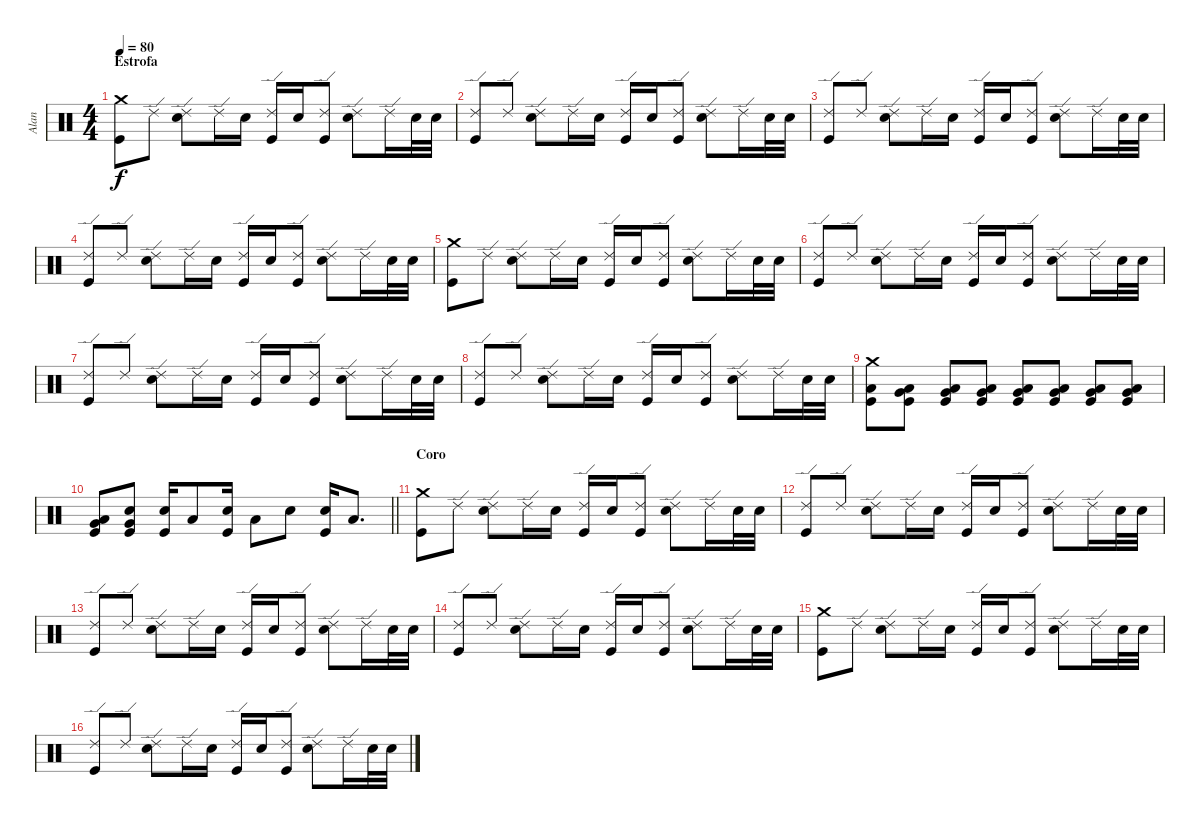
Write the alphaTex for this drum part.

\track ("Alan" "Alan") {instrument percussion}
\staff {score}
\articulation defaults
\ts (4 4)
\section ("" "Estrofa")
\tempo 80
\clef neutral
\ks c
("Crash medium (hit)" "Kick (hit)").8{dy f} "Ride (edge) 2".8 ("Ride (edge) 2" "Snare (hit) 2").8 "Ride (edge) 2".16 "Snare (hit) 2".16 ("Ride (edge) 2" "Kick (hit)").16 "Snare (hit) 2".16 ("Ride (edge) 2" "Kick (hit)").8 ("Ride (edge) 2" "Snare (hit) 2").8 "Ride (edge) 2".16 "Snare (hit) 2".32 "Snare (hit) 2".32 |
("Ride (edge) 2" "Kick (hit)").8 "Ride (edge) 2".8 ("Ride (edge) 2" "Snare (hit) 2").8 "Ride (edge) 2".16 "Snare (hit) 2".16 ("Ride (edge) 2" "Kick (hit)").16 "Snare (hit) 2".16 ("Ride (edge) 2" "Kick (hit)").8 ("Ride (edge) 2" "Snare (hit) 2").8 "Ride (edge) 2".16 "Snare (hit) 2".32 "Snare (hit) 2".32 |
("Ride (edge) 2" "Kick (hit)").8 "Ride (edge) 2".8 ("Ride (edge) 2" "Snare (hit) 2").8 "Ride (edge) 2".16 "Snare (hit) 2".16 ("Ride (edge) 2" "Kick (hit)").16 "Snare (hit) 2".16 ("Ride (edge) 2" "Kick (hit)").8 ("Ride (edge) 2" "Snare (hit) 2").8 "Ride (edge) 2".16 "Snare (hit) 2".32 "Snare (hit) 2".32 |
("Ride (edge) 2" "Kick (hit)").8 "Ride (edge) 2".8 ("Ride (edge) 2" "Snare (hit) 2").8 "Ride (edge) 2".16 "Snare (hit) 2".16 ("Ride (edge) 2" "Kick (hit)").16 "Snare (hit) 2".16 ("Ride (edge) 2" "Kick (hit)").8 ("Ride (edge) 2" "Snare (hit) 2").8 "Ride (edge) 2".16 "Snare (hit) 2".32 "Snare (hit) 2".32 |
("Crash medium (hit)" "Kick (hit)").8 "Ride (edge) 2".8 ("Ride (edge) 2" "Snare (hit) 2").8 "Ride (edge) 2".16 "Snare (hit) 2".16 ("Ride (edge) 2" "Kick (hit)").16 "Snare (hit) 2".16 ("Ride (edge) 2" "Kick (hit)").8 ("Ride (edge) 2" "Snare (hit) 2").8 "Ride (edge) 2".16 "Snare (hit) 2".32 "Snare (hit) 2".32 |
("Ride (edge) 2" "Kick (hit)").8 "Ride (edge) 2".8 ("Ride (edge) 2" "Snare (hit) 2").8 "Ride (edge) 2".16 "Snare (hit) 2".16 ("Ride (edge) 2" "Kick (hit)").16 "Snare (hit) 2".16 ("Ride (edge) 2" "Kick (hit)").8 ("Ride (edge) 2" "Snare (hit) 2").8 "Ride (edge) 2".16 "Snare (hit) 2".32 "Snare (hit) 2".32 |
("Ride (edge) 2" "Kick (hit)").8 "Ride (edge) 2".8 ("Ride (edge) 2" "Snare (hit) 2").8 "Ride (edge) 2".16 "Snare (hit) 2".16 ("Ride (edge) 2" "Kick (hit)").16 "Snare (hit) 2".16 ("Ride (edge) 2" "Kick (hit)").8 ("Ride (edge) 2" "Snare (hit) 2").8 "Ride (edge) 2".16 "Snare (hit) 2".32 "Snare (hit) 2".32 |
("Ride (edge) 2" "Kick (hit)").8 "Ride (edge) 2".8 ("Ride (edge) 2" "Snare (hit) 2").8 "Ride (edge) 2".16 "Snare (hit) 2".16 ("Ride (edge) 2" "Kick (hit)").16 "Snare (hit) 2".16 ("Ride (edge) 2" "Kick (hit)").8 ("Ride (edge) 2" "Snare (hit) 2").8 "Ride (edge) 2".16 "Snare (hit) 2".32 "Snare (hit) 2".32 |
("Kick (hit)" "Low Tom (hit)" "Crash medium (hit)").8 ("Kick (hit)" "Low Tom (hit)" "Very Low Tom (hit)").8 ("Kick (hit)" "Low Tom (hit)" "Very Low Tom (hit)").8 ("Kick (hit)" "Low Tom (hit)" "Very Low Tom (hit)").8 ("Kick (hit)" "Low Tom (hit)" "Very Low Tom (hit)").8 ("Kick (hit)" "Low Tom (hit)" "Very Low Tom (hit)").8 ("Kick (hit)" "Low Tom (hit)" "Very Low Tom (hit)").8 ("Kick (hit)" "Low Tom (hit)" "Very Low Tom (hit)").8 |
\barLineRight lightlight
("Kick (hit)" "Low Tom (hit)" "Very Low Tom (hit)").8 ("Kick (hit)" "Very Low Tom (hit)" "Snare (hit) 2").8 ("Kick (hit)" "Snare (hit) 2").16 "Low Tom (hit)".8 ("Kick (hit)" "Snare (hit) 2").16 "Low Tom (hit)".8 "Snare (hit) 2".8 ("Kick (hit)" "Snare (hit) 2").16 "Low Tom (hit)".8{d} |
\section ("" "Coro")
("Crash medium (hit)" "Kick (hit)").8 "Ride (edge) 2".8 ("Ride (edge) 2" "Snare (hit) 2").8 "Ride (edge) 2".16 "Snare (hit) 2".16 ("Ride (edge) 2" "Kick (hit)").16 "Snare (hit) 2".16 ("Ride (edge) 2" "Kick (hit)").8 ("Ride (edge) 2" "Snare (hit) 2").8 "Ride (edge) 2".16 "Snare (hit) 2".32 "Snare (hit) 2".32 |
("Ride (edge) 2" "Kick (hit)").8 "Ride (edge) 2".8 ("Ride (edge) 2" "Snare (hit) 2").8 "Ride (edge) 2".16 "Snare (hit) 2".16 ("Ride (edge) 2" "Kick (hit)").16 "Snare (hit) 2".16 ("Ride (edge) 2" "Kick (hit)").8 ("Ride (edge) 2" "Snare (hit) 2").8 "Ride (edge) 2".16 "Snare (hit) 2".32 "Snare (hit) 2".32 |
("Ride (edge) 2" "Kick (hit)").8 "Ride (edge) 2".8 ("Ride (edge) 2" "Snare (hit) 2").8 "Ride (edge) 2".16 "Snare (hit) 2".16 ("Ride (edge) 2" "Kick (hit)").16 "Snare (hit) 2".16 ("Ride (edge) 2" "Kick (hit)").8 ("Ride (edge) 2" "Snare (hit) 2").8 "Ride (edge) 2".16 "Snare (hit) 2".32 "Snare (hit) 2".32 |
("Ride (edge) 2" "Kick (hit)").8 "Ride (edge) 2".8 ("Ride (edge) 2" "Snare (hit) 2").8 "Ride (edge) 2".16 "Snare (hit) 2".16 ("Ride (edge) 2" "Kick (hit)").16 "Snare (hit) 2".16 ("Ride (edge) 2" "Kick (hit)").8 ("Ride (edge) 2" "Snare (hit) 2").8 "Ride (edge) 2".16 "Snare (hit) 2".32 "Snare (hit) 2".32 |
("Crash medium (hit)" "Kick (hit)").8 "Ride (edge) 2".8 ("Ride (edge) 2" "Snare (hit) 2").8 "Ride (edge) 2".16 "Snare (hit) 2".16 ("Ride (edge) 2" "Kick (hit)").16 "Snare (hit) 2".16 ("Ride (edge) 2" "Kick (hit)").8 ("Ride (edge) 2" "Snare (hit) 2").8 "Ride (edge) 2".16 "Snare (hit) 2".32 "Snare (hit) 2".32 |
("Ride (edge) 2" "Kick (hit)").8 "Ride (edge) 2".8 ("Ride (edge) 2" "Snare (hit) 2").8 "Ride (edge) 2".16 "Snare (hit) 2".16 ("Ride (edge) 2" "Kick (hit)").16 "Snare (hit) 2".16 ("Ride (edge) 2" "Kick (hit)").8 ("Ride (edge) 2" "Snare (hit) 2").8 "Ride (edge) 2".16 "Snare (hit) 2".32 "Snare (hit) 2".32
